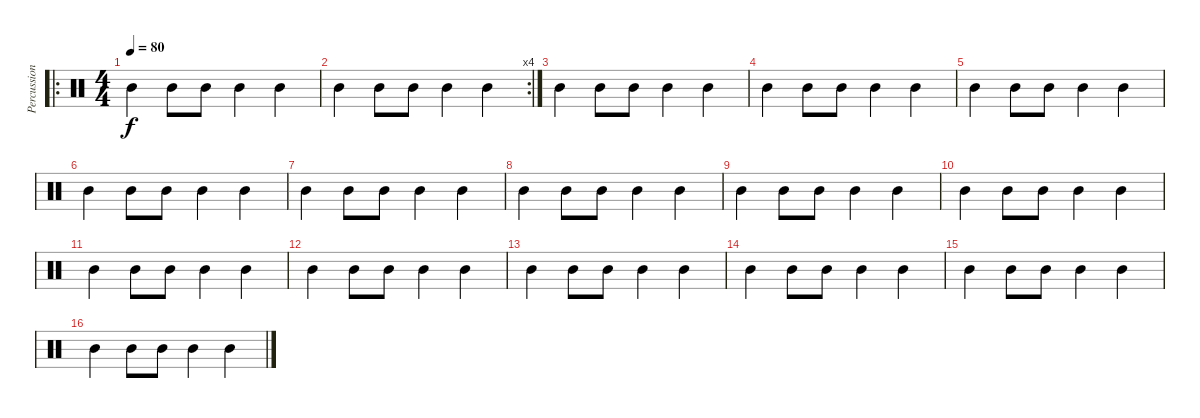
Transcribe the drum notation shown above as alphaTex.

\track ("Percussion" "Percussion") {instrument percussion}
\staff {score}
\articulation defaults
\ro
\ts (4 4)
\tempo 80
\clef neutral
\ks c "Mid Tom (hit)".4{dy f} "Mid Tom (hit)".8 "Mid Tom (hit)".8 "Mid Tom (hit)".4 "Mid Tom (hit)".4
|
\rc 4 "Mid Tom (hit)".4 "Mid Tom (hit)".8 "Mid Tom (hit)".8 "Mid Tom (hit)".4 "Mid Tom (hit)".4
|
"Mid Tom (hit)".4 "Mid Tom (hit)".8 "Mid Tom (hit)".8 "Mid Tom (hit)".4 "Mid Tom (hit)".4 |
"Mid Tom (hit)".4 "Mid Tom (hit)".8 "Mid Tom (hit)".8 "Mid Tom (hit)".4 "Mid Tom (hit)".4 |
"Mid Tom (hit)".4 "Mid Tom (hit)".8 "Mid Tom (hit)".8 "Mid Tom (hit)".4 "Mid Tom (hit)".4 |
"Mid Tom (hit)".4 "Mid Tom (hit)".8 "Mid Tom (hit)".8 "Mid Tom (hit)".4 "Mid Tom (hit)".4 |
"Mid Tom (hit)".4 "Mid Tom (hit)".8 "Mid Tom (hit)".8 "Mid Tom (hit)".4 "Mid Tom (hit)".4 |
"Mid Tom (hit)".4 "Mid Tom (hit)".8 "Mid Tom (hit)".8 "Mid Tom (hit)".4 "Mid Tom (hit)".4 |
"Mid Tom (hit)".4 "Mid Tom (hit)".8 "Mid Tom (hit)".8 "Mid Tom (hit)".4 "Mid Tom (hit)".4 |
"Mid Tom (hit)".4 "Mid Tom (hit)".8 "Mid Tom (hit)".8 "Mid Tom (hit)".4 "Mid Tom (hit)".4 |
"Mid Tom (hit)".4 "Mid Tom (hit)".8 "Mid Tom (hit)".8 "Mid Tom (hit)".4 "Mid Tom (hit)".4 |
"Mid Tom (hit)".4 "Mid Tom (hit)".8 "Mid Tom (hit)".8 "Mid Tom (hit)".4 "Mid Tom (hit)".4 |
"Mid Tom (hit)".4 "Mid Tom (hit)".8 "Mid Tom (hit)".8 "Mid Tom (hit)".4 "Mid Tom (hit)".4 |
"Mid Tom (hit)".4 "Mid Tom (hit)".8 "Mid Tom (hit)".8 "Mid Tom (hit)".4 "Mid Tom (hit)".4 |
"Mid Tom (hit)".4 "Mid Tom (hit)".8 "Mid Tom (hit)".8 "Mid Tom (hit)".4 "Mid Tom (hit)".4 |
"Mid Tom (hit)".4 "Mid Tom (hit)".8 "Mid Tom (hit)".8 "Mid Tom (hit)".4 "Mid Tom (hit)".4
